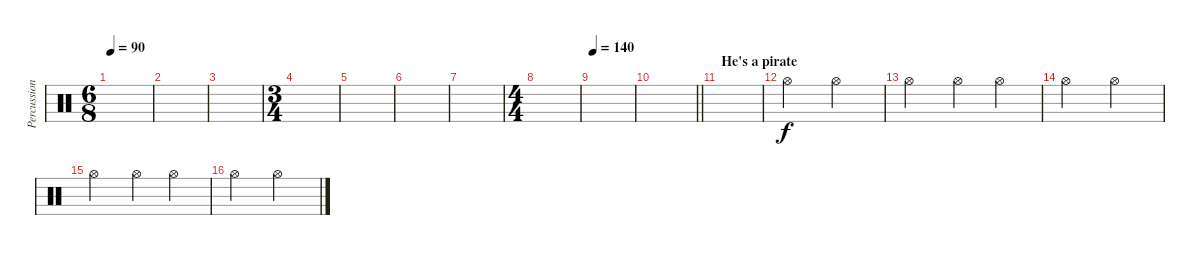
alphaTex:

\track ("Percussions" "Percussion") {instrument percussion}
\staff {score}
\articulation defaults
\ts (6 8)
\tempo 90
\clef neutral
\ks c
|
|
|
\ts (3 4)
|
|
|
|
\ts (4 4)
|
\tempo 140
|
\barLineRight lightlight
|
\section ("" "He's a pirate")
|
"Hi-Hat (open)".2 "Hi-Hat (open)".2 |
"Hi-Hat (open)".2 "Hi-Hat (open)".4 "Hi-Hat (open)".4 |
"Hi-Hat (open)".2 "Hi-Hat (open)".2 |
"Hi-Hat (open)".2 "Hi-Hat (open)".4 "Hi-Hat (open)".4 |
"Hi-Hat (open)".2 "Hi-Hat (open)".2
